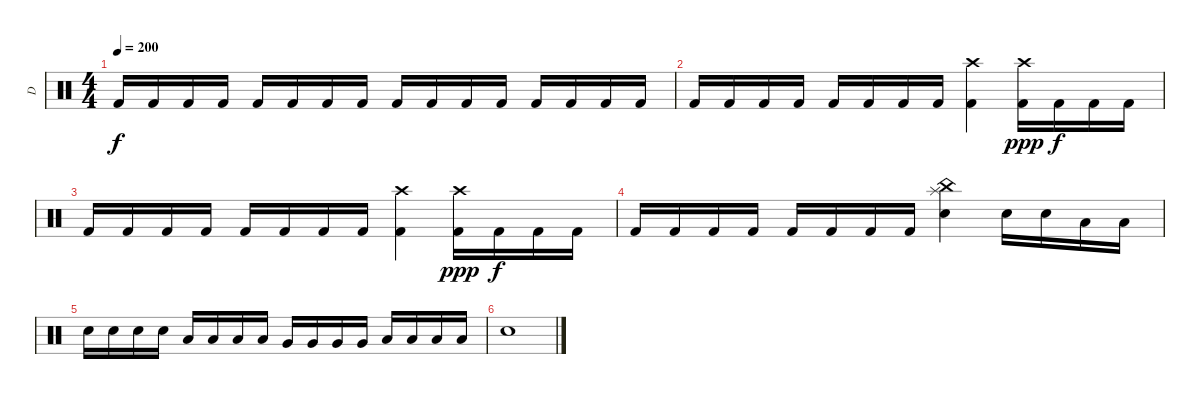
\track ("D" "D") {instrument percussion}
\staff {score}
\articulation defaults
\ts (4 4)
\tempo 200
\clef neutral
\ks c "Kick (hit) 2".16{dy f} "Kick (hit) 2".16 "Kick (hit) 2".16 "Kick (hit) 2".16 "Kick (hit) 2".16 "Kick (hit) 2".16 "Kick (hit) 2".16 "Kick (hit) 2".16 "Kick (hit) 2".16 "Kick (hit) 2".16 "Kick (hit) 2".16 "Kick (hit) 2".16 "Kick (hit) 2".16 "Kick (hit) 2".16 "Kick (hit) 2".16 "Kick (hit) 2".16
|
"Kick (hit) 2".16 "Kick (hit) 2".16 "Kick (hit) 2".16 "Kick (hit) 2".16 "Kick (hit) 2".16 "Kick (hit) 2".16 "Kick (hit) 2".16 "Kick (hit) 2".16 ("Kick (hit) 2" "Crash high (hit)").4 ("Kick (hit) 2" "Crash high (hit)").16{dy ppp} "Kick (hit) 2".16{dy f} "Kick (hit) 2".16 "Kick (hit) 2".16 |
"Kick (hit) 2".16 "Kick (hit) 2".16 "Kick (hit) 2".16 "Kick (hit) 2".16 "Kick (hit) 2".16 "Kick (hit) 2".16 "Kick (hit) 2".16 "Kick (hit) 2".16 ("Kick (hit) 2" "Crash high (hit)").4 ("Kick (hit) 2" "Crash high (hit)").16{dy ppp} "Kick (hit) 2".16{dy f} "Kick (hit) 2".16 "Kick (hit) 2".16 |
"Kick (hit) 2".16 "Kick (hit) 2".16 "Kick (hit) 2".16 "Kick (hit) 2".16 "Kick (hit) 2".16 "Kick (hit) 2".16 "Kick (hit) 2".16 "Kick (hit) 2".16 ("Splash (hit)" "Electric Snare (hit)" "China (hit)").4 "Electric Snare (hit)".16 "Electric Snare (hit)".16 "Low Tom (hit)".16 "Low Tom (hit)".16 |
"Electric Snare (hit)".16 "Electric Snare (hit)".16 "Electric Snare (hit)".16 "Electric Snare (hit)".16 "Low Tom (hit)".16 "Low Tom (hit)".16 "Low Tom (hit)".16 "Low Tom (hit)".16 "Very Low Tom (hit)".16 "Very Low Tom (hit)".16 "Very Low Tom (hit)".16 "Very Low Tom (hit)".16 "Low Floor Tom (hit)".16 "Low Floor Tom (hit)".16 "Low Floor Tom (hit)".16 "Low Floor Tom (hit)".16 |
"Electric Snare (hit)".1
